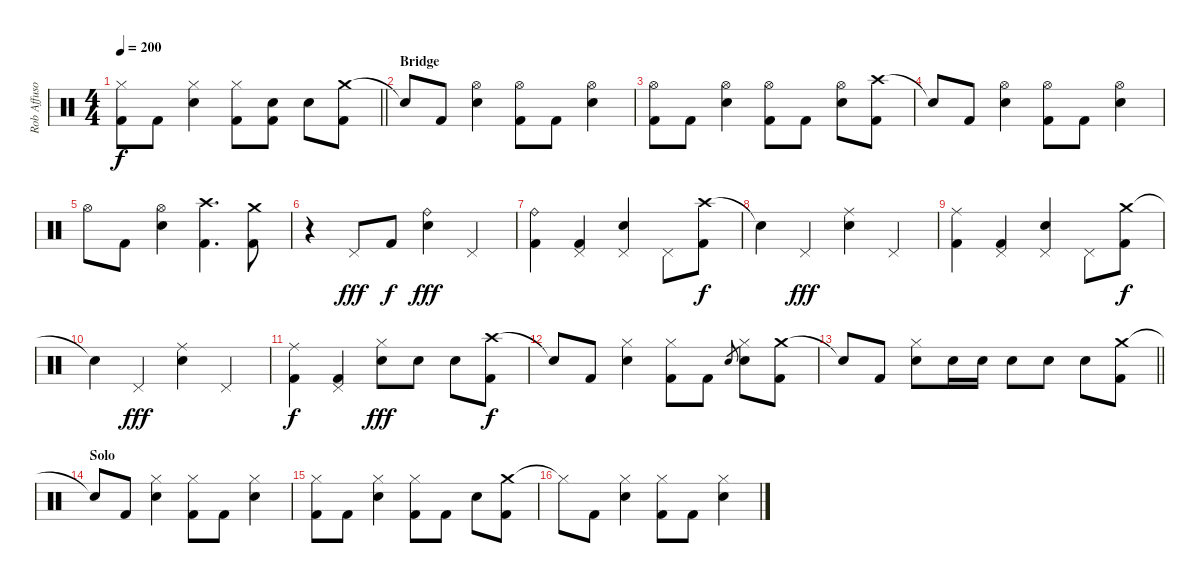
\track ("Rob Affuso - Drums" "Rob Affuso") {instrument percussion}
\staff {score}
\articulation defaults
\ts (4 4)
\tempo 200
\clef neutral
\barLineRight lightlight
\ks c
("Hi-Hat (closed)" "Kick (hit) 2").8{dy f} "Kick (hit) 2".8 ("Hi-Hat (closed)" "Snare (hit) 2").4 ("Hi-Hat (closed)" "Kick (hit) 2").8 ("Snare (hit) 2" "Kick (hit) 2").8 "Snare (hit) 2".8 ("Crash medium (hit)" "Kick (hit) 2").8 |
\section ("" "Bridge")
"Snare (hit)"{t}.8 "Kick (hit) 2".8 ("Hi-Hat (open)" "Snare (hit) 2").4 ("Hi-Hat (open)" "Kick (hit) 2").8 "Kick (hit) 2".8 ("Hi-Hat (open)" "Snare (hit) 2").4 |
("Hi-Hat (open)" "Kick (hit) 2").8 "Kick (hit) 2".8 ("Hi-Hat (open)" "Snare (hit) 2").4 ("Hi-Hat (open)" "Kick (hit) 2").8 "Kick (hit) 2".8 ("Hi-Hat (open)" "Snare (hit) 2").8 ("Crash high (hit)" "Kick (hit) 2").8 |
"Snare (hit)"{t}.8 "Kick (hit) 2".8 ("Hi-Hat (open)" "Snare (hit) 2").4 ("Hi-Hat (open)" "Kick (hit) 2").8 "Kick (hit) 2".8 ("Hi-Hat (open)" "Snare (hit) 2").4 |
"Hi-Hat (open)".8 "Kick (hit) 2".8 ("Hi-Hat (open)" "Snare (hit) 2").4 ("Crash high (hit)" "Kick (hit) 2").4{d} ("Crash medium (hit)" "Kick (hit) 2").8 |
r.4 "Pedal Hi-Hat (hit)".8{dy fff} "Kick (hit) 2".8{dy f} ("Ride (bell)" "Snare (hit) 2").4{dy fff} "Pedal Hi-Hat (hit)".4 |
("Ride (bell)" "Kick (hit) 2").4 ("Pedal Hi-Hat (hit)" "Kick (hit) 2").4 ("Pedal Hi-Hat (hit)" "Snare (hit) 2").4 "Pedal Hi-Hat (hit)".8 ("Crash high (hit)" "Kick (hit) 2").8{dy f} |
"Snare (hit)"{t}.4 "Pedal Hi-Hat (hit)".4{dy fff} ("Ride (middle)" "Snare (hit) 2").4 "Pedal Hi-Hat (hit)".4 |
("Ride (middle)" "Kick (hit) 2").4 ("Pedal Hi-Hat (hit)" "Kick (hit) 2").4 ("Pedal Hi-Hat (hit)" "Snare (hit) 2").4 "Pedal Hi-Hat (hit)".8 ("Crash medium (hit)" "Kick (hit) 2").8{dy f} |
"Snare (hit)"{t}.4 "Pedal Hi-Hat (hit)".4{dy fff} ("Ride (middle)" "Snare (hit) 2").4 "Pedal Hi-Hat (hit)".4 |
("Ride (middle)" "Kick (hit) 2").4{dy f} ("Pedal Hi-Hat (hit)" "Kick (hit) 2").4 ("Hi-Hat (closed)" "Snare (hit) 2").8{dy fff} "Snare (hit) 2".8 "Snare (hit) 2".8 ("Crash high (hit)" "Kick (hit) 2").8{dy f} |
"Snare (hit)"{t}.8 "Kick (hit) 2".8 ("Hi-Hat (closed)" "Snare (hit) 2").4 ("Hi-Hat (closed)" "Kick (hit) 2").8 "Kick (hit) 2".8 "Snare (hit) 2".8{gr} ("Hi-Hat (closed)" "Snare (hit) 2").8 ("Crash medium (hit)" "Kick (hit) 2").8 |
\barLineRight lightlight "Snare (hit)"{t}.8 "Kick (hit) 2".8
("Hi-Hat (closed)" "Snare (hit) 2").8 "Snare (hit) 2".16 "Snare (hit) 2".16 "Snare (hit) 2".8 "Snare (hit) 2".8 "Snare (hit) 2".8 ("Crash medium (hit)" "Kick (hit) 2").8 |
\section ("" "Solo")
"Snare (hit)"{t}.8 "Kick (hit) 2".8 ("Hi-Hat (closed)" "Snare (hit) 2").4 ("Hi-Hat (closed)" "Kick (hit) 2").8 "Kick (hit) 2".8 ("Hi-Hat (closed)" "Snare (hit) 2").4 |
("Hi-Hat (closed)" "Kick (hit) 2").8 "Kick (hit) 2".8 ("Hi-Hat (closed)" "Snare (hit) 2").4 ("Hi-Hat (closed)" "Kick (hit) 2").8 "Kick (hit) 2".8 "Snare (hit) 2".8 ("Crash medium (hit)" "Kick (hit) 2").8 |
"Hi-Hat (closed)"{t}.8 "Kick (hit) 2".8 ("Hi-Hat (closed)" "Snare (hit) 2").4 ("Hi-Hat (closed)" "Kick (hit) 2").8 "Kick (hit) 2".8 ("Hi-Hat (closed)" "Snare (hit) 2").4
